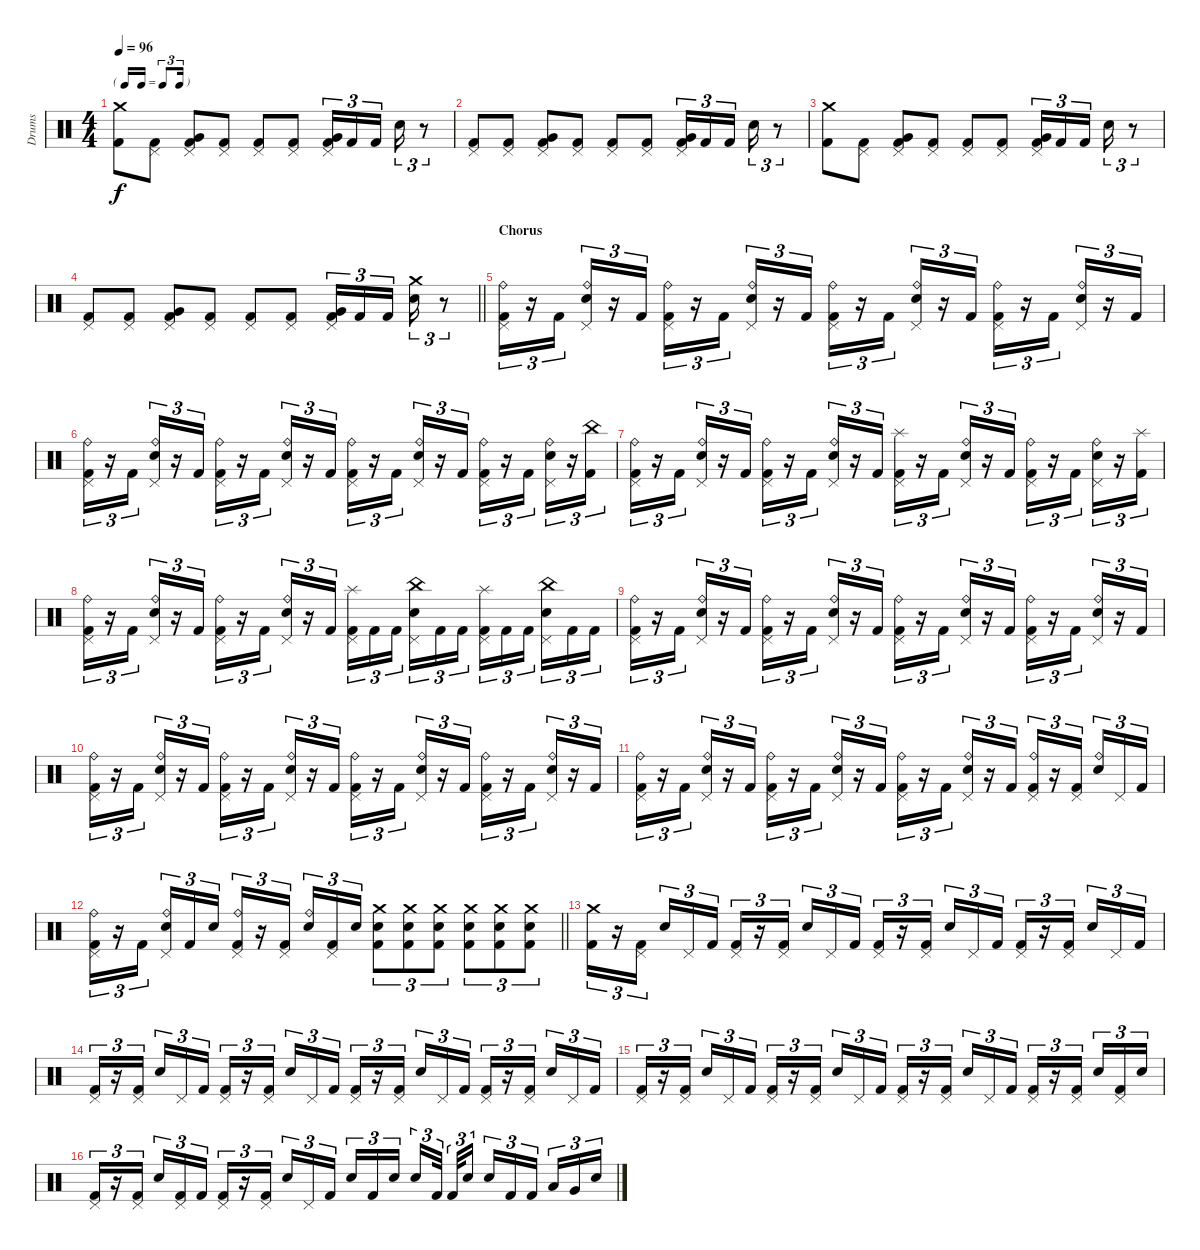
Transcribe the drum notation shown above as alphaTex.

\track ("Drums" "Drums") {instrument percussion}
\staff {score}
\articulation defaults
\ts (4 4)
\tf triplet16th
\tempo 96
\clef neutral
\ks c
("Crash medium (hit)" "Kick (hit) 2").8{dy f} ("Pedal Hi-Hat (hit)" "Kick (hit) 2").8 ("Pedal Hi-Hat (hit)" "Very Low Tom (hit)" "Kick (hit) 2").8 ("Pedal Hi-Hat (hit)" "Kick (hit) 2").8 ("Pedal Hi-Hat (hit)" "Kick (hit) 2").8 ("Pedal Hi-Hat (hit)" "Kick (hit) 2").8 ("Pedal Hi-Hat (hit)" "Very Low Tom (hit)" "Kick (hit) 2").16{tu (3 2)} "Kick (hit) 2".16{tu (3 2)} "Kick (hit) 2".16{tu (3 2) beam splitsecondary} "Snare (hit) 2".16{tu (3 2)} r.8{tu (3 2)} |
("Pedal Hi-Hat (hit)" "Kick (hit) 2").8 ("Pedal Hi-Hat (hit)" "Kick (hit) 2").8 ("Pedal Hi-Hat (hit)" "Very Low Tom (hit)" "Kick (hit) 2").8 ("Pedal Hi-Hat (hit)" "Kick (hit) 2").8 ("Pedal Hi-Hat (hit)" "Kick (hit) 2").8 ("Pedal Hi-Hat (hit)" "Kick (hit) 2").8 ("Pedal Hi-Hat (hit)" "Very Low Tom (hit)" "Kick (hit) 2").16{tu (3 2)} "Kick (hit) 2".16{tu (3 2)} "Kick (hit) 2".16{tu (3 2) beam splitsecondary} "Snare (hit) 2".16{tu (3 2)} r.8{tu (3 2)} |
("Crash medium (hit)" "Kick (hit) 2").8 ("Pedal Hi-Hat (hit)" "Kick (hit) 2").8 ("Pedal Hi-Hat (hit)" "Very Low Tom (hit)" "Kick (hit) 2").8 ("Pedal Hi-Hat (hit)" "Kick (hit) 2").8 ("Pedal Hi-Hat (hit)" "Kick (hit) 2").8 ("Pedal Hi-Hat (hit)" "Kick (hit) 2").8 ("Pedal Hi-Hat (hit)" "Very Low Tom (hit)" "Kick (hit) 2").16{tu (3 2)} "Kick (hit) 2".16{tu (3 2)} "Kick (hit) 2".16{tu (3 2) beam splitsecondary} "Snare (hit) 2".16{tu (3 2)} r.8{tu (3 2)} |
\barLineRight lightlight
("Pedal Hi-Hat (hit)" "Kick (hit) 2").8 ("Pedal Hi-Hat (hit)" "Kick (hit) 2").8 ("Pedal Hi-Hat (hit)" "Very Low Tom (hit)" "Kick (hit) 2").8 ("Pedal Hi-Hat (hit)" "Kick (hit) 2").8 ("Pedal Hi-Hat (hit)" "Kick (hit) 2").8 ("Pedal Hi-Hat (hit)" "Kick (hit) 2").8 ("Pedal Hi-Hat (hit)" "Very Low Tom (hit)" "Kick (hit) 2").16{tu (3 2)} "Kick (hit) 2".16{tu (3 2)} "Kick (hit) 2".16{tu (3 2) beam splitsecondary} ("Crash medium (hit)" "Snare (hit) 2").16{tu (3 2)} r.8{tu (3 2)} |
\section ("" "Chorus")
("Ride (bell)" "Pedal Hi-Hat (hit)" "Kick (hit) 2").16{tu (3 2)} r.16{tu (3 2)} "Kick (hit) 2".16{tu (3 2)} ("Ride (bell)" "Pedal Hi-Hat (hit)" "Snare (hit) 2").16{tu (3 2)} r.16{tu (3 2)} "Kick (hit) 2".16{tu (3 2)} ("Ride (bell)" "Pedal Hi-Hat (hit)" "Kick (hit) 2").16{tu (3 2)} r.16{tu (3 2)} "Kick (hit) 2".16{tu (3 2)} ("Ride (bell)" "Pedal Hi-Hat (hit)" "Snare (hit) 2").16{tu (3 2)} r.16{tu (3 2)} "Kick (hit) 2".16{tu (3 2)} ("Ride (bell)" "Pedal Hi-Hat (hit)" "Kick (hit) 2").16{tu (3 2)} r.16{tu (3 2)} "Kick (hit) 2".16{tu (3 2)} ("Ride (bell)" "Pedal Hi-Hat (hit)" "Snare (hit) 2").16{tu (3 2)} r.16{tu (3 2)} "Kick (hit) 2".16{tu (3 2)} ("Ride (bell)" "Pedal Hi-Hat (hit)" "Kick (hit) 2").16{tu (3 2)} r.16{tu (3 2)} "Kick (hit) 2".16{tu (3 2)} ("Ride (bell)" "Pedal Hi-Hat (hit)" "Snare (hit) 2").16{tu (3 2)} r.16{tu (3 2)} "Kick (hit) 2".16{tu (3 2)} |
("Ride (bell)" "Pedal Hi-Hat (hit)" "Kick (hit) 2").16{tu (3 2)} r.16{tu (3 2)} "Kick (hit) 2".16{tu (3 2)} ("Ride (bell)" "Pedal Hi-Hat (hit)" "Snare (hit) 2").16{tu (3 2)} r.16{tu (3 2)} "Kick (hit) 2".16{tu (3 2)} ("Ride (bell)" "Pedal Hi-Hat (hit)" "Kick (hit) 2").16{tu (3 2)} r.16{tu (3 2)} "Kick (hit) 2".16{tu (3 2)} ("Ride (bell)" "Pedal Hi-Hat (hit)" "Snare (hit) 2").16{tu (3 2)} r.16{tu (3 2)} "Kick (hit) 2".16{tu (3 2)} ("Ride (bell)" "Pedal Hi-Hat (hit)" "Kick (hit) 2").16{tu (3 2)} r.16{tu (3 2)} "Kick (hit) 2".16{tu (3 2)} ("Ride (bell)" "Pedal Hi-Hat (hit)" "Snare (hit) 2").16{tu (3 2)} r.16{tu (3 2)} "Kick (hit) 2".16{tu (3 2)} ("Ride (bell)" "Pedal Hi-Hat (hit)" "Kick (hit) 2").16{tu (3 2)} r.16{tu (3 2)} "Kick (hit) 2".16{tu (3 2)} ("Ride (bell)" "Pedal Hi-Hat (hit)" "Snare (hit) 2").16{tu (3 2)} r.16{tu (3 2)} ("China (hit)" "Kick (hit) 2").16{tu (3 2)} |
("Ride (bell)" "Pedal Hi-Hat (hit)" "Kick (hit) 2").16{tu (3 2)} r.16{tu (3 2)} "Kick (hit) 2".16{tu (3 2)} ("Ride (bell)" "Pedal Hi-Hat (hit)" "Snare (hit) 2").16{tu (3 2)} r.16{tu (3 2)} "Kick (hit) 2".16{tu (3 2)} ("Ride (bell)" "Pedal Hi-Hat (hit)" "Kick (hit) 2").16{tu (3 2)} r.16{tu (3 2)} "Kick (hit) 2".16{tu (3 2)} ("Ride (bell)" "Pedal Hi-Hat (hit)" "Snare (hit) 2").16{tu (3 2)} r.16{tu (3 2)} "Kick (hit) 2".16{tu (3 2)} ("Splash (hit)" "Pedal Hi-Hat (hit)" "Kick (hit) 2").16{tu (3 2)} r.16{tu (3 2)} "Kick (hit) 2".16{tu (3 2)} ("Ride (bell)" "Pedal Hi-Hat (hit)" "Snare (hit) 2").16{tu (3 2)} r.16{tu (3 2)} "Kick (hit) 2".16{tu (3 2)} ("Ride (bell)" "Pedal Hi-Hat (hit)" "Kick (hit) 2").16{tu (3 2)} r.16{tu (3 2)} "Kick (hit) 2".16{tu (3 2)} ("Ride (bell)" "Pedal Hi-Hat (hit)" "Snare (hit) 2").16{tu (3 2)} r.16{tu (3 2)} ("Splash (hit)" "Kick (hit) 2").16{tu (3 2)} |
("Ride (bell)" "Pedal Hi-Hat (hit)" "Kick (hit) 2").16{tu (3 2)} r.16{tu (3 2)} "Kick (hit) 2".16{tu (3 2)} ("Ride (bell)" "Pedal Hi-Hat (hit)" "Snare (hit) 2").16{tu (3 2)} r.16{tu (3 2)} "Kick (hit) 2".16{tu (3 2)} ("Ride (bell)" "Pedal Hi-Hat (hit)" "Kick (hit) 2").16{tu (3 2)} r.16{tu (3 2)} "Kick (hit) 2".16{tu (3 2)} ("Ride (bell)" "Pedal Hi-Hat (hit)" "Snare (hit) 2").16{tu (3 2)} r.16{tu (3 2)} "Kick (hit) 2".16{tu (3 2)} ("Splash (hit)" "Pedal Hi-Hat (hit)" "Kick (hit) 2").16{tu (3 2)} "Kick (hit) 2".16{tu (3 2)} "Kick (hit) 2".16{tu (3 2) beam splitsecondary} ("China (hit)" "Pedal Hi-Hat (hit)" "Snare (hit) 2").16{tu (3 2)} "Kick (hit) 2".16{tu (3 2)} "Kick (hit) 2".16{tu (3 2)} ("Splash (hit)" "Pedal Hi-Hat (hit)" "Kick (hit) 2").16{tu (3 2)} "Kick (hit) 2".16{tu (3 2)} "Kick (hit) 2".16{tu (3 2) beam splitsecondary} ("China (hit)" "Pedal Hi-Hat (hit)" "Snare (hit) 2").16{tu (3 2)} "Kick (hit) 2".16{tu (3 2)} "Kick (hit) 2".16{tu (3 2)} |
("Ride (bell)" "Pedal Hi-Hat (hit)" "Kick (hit) 2").16{tu (3 2)} r.16{tu (3 2)} "Kick (hit) 2".16{tu (3 2)} ("Ride (bell)" "Pedal Hi-Hat (hit)" "Snare (hit) 2").16{tu (3 2)} r.16{tu (3 2)} "Kick (hit) 2".16{tu (3 2)} ("Ride (bell)" "Pedal Hi-Hat (hit)" "Kick (hit) 2").16{tu (3 2)} r.16{tu (3 2)} "Kick (hit) 2".16{tu (3 2)} ("Ride (bell)" "Pedal Hi-Hat (hit)" "Snare (hit) 2").16{tu (3 2)} r.16{tu (3 2)} "Kick (hit) 2".16{tu (3 2)} ("Ride (bell)" "Pedal Hi-Hat (hit)" "Kick (hit) 2").16{tu (3 2)} r.16{tu (3 2)} "Kick (hit) 2".16{tu (3 2)} ("Ride (bell)" "Pedal Hi-Hat (hit)" "Snare (hit) 2").16{tu (3 2)} r.16{tu (3 2)} "Kick (hit) 2".16{tu (3 2)} ("Ride (bell)" "Pedal Hi-Hat (hit)" "Kick (hit) 2").16{tu (3 2)} r.16{tu (3 2)} "Kick (hit) 2".16{tu (3 2)} ("Ride (bell)" "Pedal Hi-Hat (hit)" "Snare (hit) 2").16{tu (3 2)} r.16{tu (3 2)} "Kick (hit) 2".16{tu (3 2)} |
("Ride (bell)" "Pedal Hi-Hat (hit)" "Kick (hit) 2").16{tu (3 2)} r.16{tu (3 2)} "Kick (hit) 2".16{tu (3 2)} ("Ride (bell)" "Pedal Hi-Hat (hit)" "Snare (hit) 2").16{tu (3 2)} r.16{tu (3 2)} "Kick (hit) 2".16{tu (3 2)} ("Ride (bell)" "Pedal Hi-Hat (hit)" "Kick (hit) 2").16{tu (3 2)} r.16{tu (3 2)} "Kick (hit) 2".16{tu (3 2)} ("Ride (bell)" "Pedal Hi-Hat (hit)" "Snare (hit) 2").16{tu (3 2)} r.16{tu (3 2)} "Kick (hit) 2".16{tu (3 2)} ("Ride (bell)" "Pedal Hi-Hat (hit)" "Kick (hit) 2").16{tu (3 2)} r.16{tu (3 2)} "Kick (hit) 2".16{tu (3 2)} ("Ride (bell)" "Pedal Hi-Hat (hit)" "Snare (hit) 2").16{tu (3 2)} r.16{tu (3 2)} "Kick (hit) 2".16{tu (3 2)} ("Ride (bell)" "Pedal Hi-Hat (hit)" "Kick (hit) 2").16{tu (3 2)} r.16{tu (3 2)} "Kick (hit) 2".16{tu (3 2)} ("Ride (bell)" "Pedal Hi-Hat (hit)" "Snare (hit) 2").16{tu (3 2)} r.16{tu (3 2)} "Kick (hit) 2".16{tu (3 2)} |
("Ride (bell)" "Pedal Hi-Hat (hit)" "Kick (hit) 2").16{tu (3 2)} r.16{tu (3 2)} "Kick (hit) 2".16{tu (3 2)} ("Ride (bell)" "Pedal Hi-Hat (hit)" "Snare (hit) 2").16{tu (3 2)} r.16{tu (3 2)} "Kick (hit) 2".16{tu (3 2)} ("Ride (bell)" "Pedal Hi-Hat (hit)" "Kick (hit) 2").16{tu (3 2)} r.16{tu (3 2)} "Kick (hit) 2".16{tu (3 2)} ("Ride (bell)" "Pedal Hi-Hat (hit)" "Snare (hit) 2").16{tu (3 2)} r.16{tu (3 2)} "Kick (hit) 2".16{tu (3 2)} ("Ride (bell)" "Pedal Hi-Hat (hit)" "Kick (hit) 2").16{tu (3 2)} r.16{tu (3 2)} "Kick (hit) 2".16{tu (3 2)} ("Ride (bell)" "Pedal Hi-Hat (hit)" "Snare (hit) 2").16{tu (3 2)} r.16{tu (3 2)} "Kick (hit) 2".16{tu (3 2)} ("Ride (bell)" "Pedal Hi-Hat (hit)" "Kick (hit) 2").16{tu (3 2)} r.16{tu (3 2)} ("Pedal Hi-Hat (hit)" "Kick (hit) 2").16{tu (3 2) beam splitsecondary} ("Ride (bell)" "Snare (hit) 2").16{tu (3 2)} "Pedal Hi-Hat (hit)".16{tu (3 2)} "Kick (hit) 2".16{tu (3 2)} |
\barLineRight lightlight
("Ride (bell)" "Pedal Hi-Hat (hit)" "Kick (hit) 2").16{tu (3 2)} r.16{tu (3 2)} "Kick (hit) 2".16{tu (3 2) beam splitsecondary} ("Ride (bell)" "Pedal Hi-Hat (hit)" "Snare (hit) 2").16{tu (3 2)} "Kick (hit) 2".16{tu (3 2)} "Snare (hit) 2".16{tu (3 2)} ("Ride (bell)" "Pedal Hi-Hat (hit)" "Kick (hit) 2").16{tu (3 2)} r.16{tu (3 2)} ("Pedal Hi-Hat (hit)" "Kick (hit) 2").16{tu (3 2) beam splitsecondary} ("Ride (bell)" "Snare (hit) 2").16{tu (3 2)} ("Pedal Hi-Hat (hit)" "Kick (hit) 2").16{tu (3 2)} "Snare (hit) 2".16{tu (3 2)} ("Crash medium (hit)" "Snare (hit) 2" "Kick (hit) 2").8{tu (3 2)} ("Crash medium (hit)" "Snare (hit) 2" "Kick (hit) 2").8{tu (3 2)} ("Crash medium (hit)" "Snare (hit) 2" "Kick (hit) 2").8{tu (3 2)} ("Crash medium (hit)" "Snare (hit) 2" "Kick (hit) 2").8{tu (3 2)} ("Crash medium (hit)" "Snare (hit) 2" "Kick (hit) 2").8{tu (3 2)} ("Crash medium (hit)" "Snare (hit) 2" "Kick (hit) 2").8{tu (3 2)} |
("Crash medium (hit)" "Kick (hit) 2").16{tu (3 2)} r.16{tu (3 2)} ("Pedal Hi-Hat (hit)" "Kick (hit) 2").16{tu (3 2) beam splitsecondary} "Snare (hit) 2".16{tu (3 2)} "Pedal Hi-Hat (hit)".16{tu (3 2)} "Kick (hit) 2".16{tu (3 2)} ("Pedal Hi-Hat (hit)" "Kick (hit) 2").16{tu (3 2)} r.16{tu (3 2)} ("Pedal Hi-Hat (hit)" "Kick (hit) 2").16{tu (3 2) beam splitsecondary} "Snare (hit) 2".16{tu (3 2)} "Pedal Hi-Hat (hit)".16{tu (3 2)} "Kick (hit) 2".16{tu (3 2)} ("Pedal Hi-Hat (hit)" "Kick (hit) 2").16{tu (3 2)} r.16{tu (3 2)} ("Pedal Hi-Hat (hit)" "Kick (hit) 2").16{tu (3 2) beam splitsecondary} "Snare (hit) 2".16{tu (3 2)} "Pedal Hi-Hat (hit)".16{tu (3 2)} "Kick (hit) 2".16{tu (3 2)} ("Pedal Hi-Hat (hit)" "Kick (hit) 2").16{tu (3 2)} r.16{tu (3 2)} ("Pedal Hi-Hat (hit)" "Kick (hit) 2").16{tu (3 2) beam splitsecondary} "Snare (hit) 2".16{tu (3 2)} "Pedal Hi-Hat (hit)".16{tu (3 2)} "Kick (hit) 2".16{tu (3 2)} |
("Pedal Hi-Hat (hit)" "Kick (hit) 2").16{tu (3 2)} r.16{tu (3 2)} ("Pedal Hi-Hat (hit)" "Kick (hit) 2").16{tu (3 2) beam splitsecondary} "Snare (hit) 2".16{tu (3 2)} "Pedal Hi-Hat (hit)".16{tu (3 2)} "Kick (hit) 2".16{tu (3 2)} ("Pedal Hi-Hat (hit)" "Kick (hit) 2").16{tu (3 2)} r.16{tu (3 2)} ("Pedal Hi-Hat (hit)" "Kick (hit) 2").16{tu (3 2) beam splitsecondary} "Snare (hit) 2".16{tu (3 2)} "Pedal Hi-Hat (hit)".16{tu (3 2)} "Kick (hit) 2".16{tu (3 2)} ("Pedal Hi-Hat (hit)" "Kick (hit) 2").16{tu (3 2)} r.16{tu (3 2)} ("Pedal Hi-Hat (hit)" "Kick (hit) 2").16{tu (3 2) beam splitsecondary} "Snare (hit) 2".16{tu (3 2)} "Pedal Hi-Hat (hit)".16{tu (3 2)} "Kick (hit) 2".16{tu (3 2)} ("Pedal Hi-Hat (hit)" "Kick (hit) 2").16{tu (3 2)} r.16{tu (3 2)} ("Pedal Hi-Hat (hit)" "Kick (hit) 2").16{tu (3 2) beam splitsecondary} "Snare (hit) 2".16{tu (3 2)} "Pedal Hi-Hat (hit)".16{tu (3 2)} "Kick (hit) 2".16{tu (3 2)} |
("Pedal Hi-Hat (hit)" "Kick (hit) 2").16{tu (3 2)} r.16{tu (3 2)} ("Pedal Hi-Hat (hit)" "Kick (hit) 2").16{tu (3 2) beam splitsecondary} "Snare (hit) 2".16{tu (3 2)} "Pedal Hi-Hat (hit)".16{tu (3 2)} "Kick (hit) 2".16{tu (3 2)} ("Pedal Hi-Hat (hit)" "Kick (hit) 2").16{tu (3 2)} r.16{tu (3 2)} ("Pedal Hi-Hat (hit)" "Kick (hit) 2").16{tu (3 2) beam splitsecondary} "Snare (hit) 2".16{tu (3 2)} "Pedal Hi-Hat (hit)".16{tu (3 2)} "Kick (hit) 2".16{tu (3 2)} ("Pedal Hi-Hat (hit)" "Kick (hit) 2").16{tu (3 2)} r.16{tu (3 2)} ("Pedal Hi-Hat (hit)" "Kick (hit) 2").16{tu (3 2) beam splitsecondary} "Snare (hit) 2".16{tu (3 2)} "Pedal Hi-Hat (hit)".16{tu (3 2)} "Kick (hit) 2".16{tu (3 2)} ("Pedal Hi-Hat (hit)" "Kick (hit) 2").16{tu (3 2)} r.16{tu (3 2)} ("Pedal Hi-Hat (hit)" "Kick (hit) 2").16{tu (3 2) beam splitsecondary} "Snare (hit) 2".16{tu (3 2)} ("Pedal Hi-Hat (hit)" "Kick (hit) 2").16{tu (3 2)} "Snare (hit) 2".16{tu (3 2)} |
("Pedal Hi-Hat (hit)" "Kick (hit) 2").16{tu (3 2)} r.16{tu (3 2)} ("Pedal Hi-Hat (hit)" "Kick (hit) 2").16{tu (3 2) beam splitsecondary} "Snare (hit) 2".16{tu (3 2)} ("Pedal Hi-Hat (hit)" "Kick (hit) 2").16{tu (3 2)} "Kick (hit) 2".16{tu (3 2)} ("Pedal Hi-Hat (hit)" "Kick (hit) 2").16{tu (3 2)} r.16{tu (3 2)} ("Pedal Hi-Hat (hit)" "Kick (hit) 2").16{tu (3 2) beam splitsecondary} "Snare (hit) 2".16{tu (3 2)} "Pedal Hi-Hat (hit)".16{tu (3 2)} "Kick (hit) 2".16{tu (3 2)} "Snare (hit) 2".16{tu (3 2)} "Kick (hit) 2".16{tu (3 2)} "Snare (hit) 2".16{tu (3 2) beam splitsecondary} "Snare (hit) 2".16{tu (3 2)} "Kick (hit) 2".32{tu (3 2) beam splitsecondary} "Kick (hit) 2".32{tu (3 2)} "Snare (hit) 2".16{tu (3 2)} "Snare (hit) 2".16{tu (3 2)} "Kick (hit) 2".16{tu (3 2)} "Kick (hit) 2".16{tu (3 2) beam splitsecondary} "Low Tom (hit)".16{tu (3 2)} "Very Low Tom (hit)".16{tu (3 2)} "Snare (hit) 2".16{tu (3 2)}
